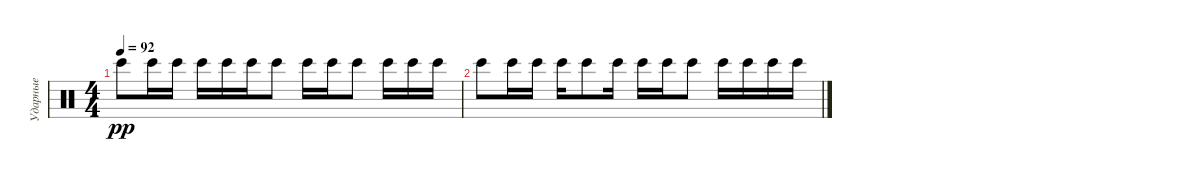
\track ("Ударные" "Ударные") {instrument percussion}
\staff {score}
\articulation defaults
\ts (4 4)
\tempo 92
\clef neutral
\ks c "Bongo High (hit)".8{dy pp} "Bongo High (hit)".16 "Bongo High (hit)".16 "Bongo High (hit)".16 "Bongo High (hit)".16 "Bongo High (hit)".16 "Bongo High (hit)".8 "Bongo High (hit)".16 "Bongo High (hit)".16 "Bongo High (hit)".8 "Bongo High (hit)".16 "Bongo High (hit)".16 "Bongo High (hit)".16
|
"Bongo High (hit)".8 "Bongo High (hit)".16 "Bongo High (hit)".16 "Bongo High (hit)".16 "Bongo High (hit)".8 "Bongo High (hit)".16 "Bongo High (hit)".16 "Bongo High (hit)".16 "Bongo High (hit)".8 "Bongo High (hit)".16 "Bongo High (hit)".16 "Bongo High (hit)".16 "Bongo High (hit)".16
